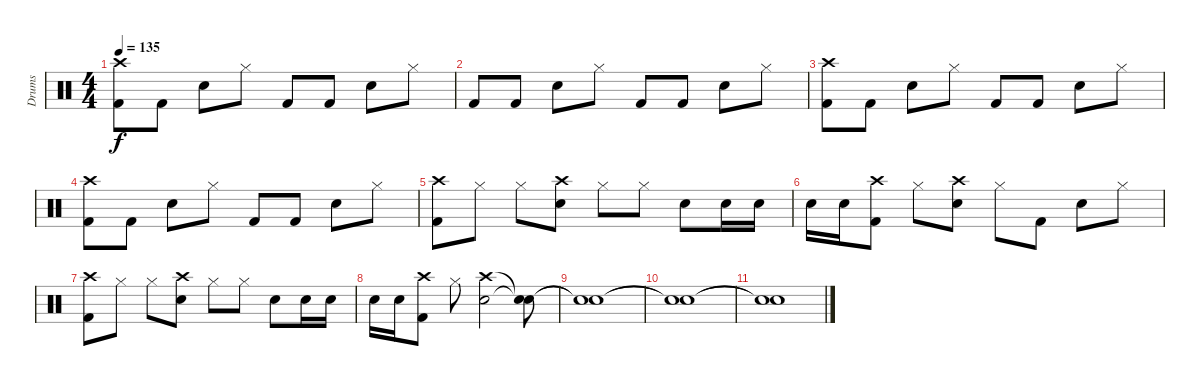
\track ("Drums" "Drums") {instrument percussion}
\staff {score}
\articulation defaults
\ts (4 4)
\tempo 135
\clef neutral
\ks c
("Crash high (hit)" "Kick (hit) 2").8{dy f} "Kick (hit) 2".8 "Snare (hit) 2".8 "Hi-Hat (closed)".8 "Kick (hit) 2".8 "Kick (hit) 2".8 "Snare (hit) 2".8 "Hi-Hat (closed)".8 |
"Kick (hit) 2".8 "Kick (hit) 2".8 "Snare (hit) 2".8 "Hi-Hat (closed)".8 "Kick (hit) 2".8 "Kick (hit) 2".8 "Snare (hit) 2".8 "Hi-Hat (closed)".8 |
("Crash high (hit)" "Kick (hit) 2").8 "Kick (hit) 2".8 "Snare (hit) 2".8 "Hi-Hat (closed)".8 "Kick (hit) 2".8 "Kick (hit) 2".8 "Snare (hit) 2".8 "Hi-Hat (closed)".8 |
("Crash high (hit)" "Kick (hit) 2").8 "Kick (hit) 2".8 "Snare (hit) 2".8 "Hi-Hat (closed)".8 "Kick (hit) 2".8 "Kick (hit) 2".8 "Snare (hit) 2".8 "Hi-Hat (closed)".8 |
("Crash high (hit)" "Kick (hit) 2").8 "Hi-Hat (closed)".8 "Hi-Hat (closed)".8 ("Crash high (hit)" "Snare (hit) 2").8 "Hi-Hat (closed)".8 "Hi-Hat (closed)".8 "Snare (hit) 2".8 "Snare (hit) 2".16 "Snare (hit) 2".16 |
"Snare (hit) 2".16 "Snare (hit) 2".16 ("Crash high (hit)" "Kick (hit) 2").8 "Hi-Hat (closed)".8 ("Crash high (hit)" "Snare (hit) 2").8 "Hi-Hat (closed)".8 "Kick (hit) 2".8 "Snare (hit) 2".8 "Hi-Hat (closed)".8 |
("Crash high (hit)" "Kick (hit) 2").8 "Hi-Hat (closed)".8 "Hi-Hat (closed)".8 ("Crash high (hit)" "Snare (hit) 2").8 "Hi-Hat (closed)".8 "Hi-Hat (closed)".8 "Snare (hit) 2".8 "Snare (hit) 2".16 "Snare (hit) 2".16 |
"Snare (hit) 2".16 "Snare (hit) 2".16 ("Crash high (hit)" "Kick (hit) 2").8 "Hi-Hat (closed)".8 ("Crash high (hit)" "Snare (hit) 2").2 ("Snare (hit)"{t} "Snare (hit)"{t}).8 |
("Snare (hit)"{t} "Snare (hit)"{t}).1 |
("Snare (hit)"{t} "Snare (hit)"{t}).1 |
("Snare (hit)"{t} "Snare (hit)"{t}).1
